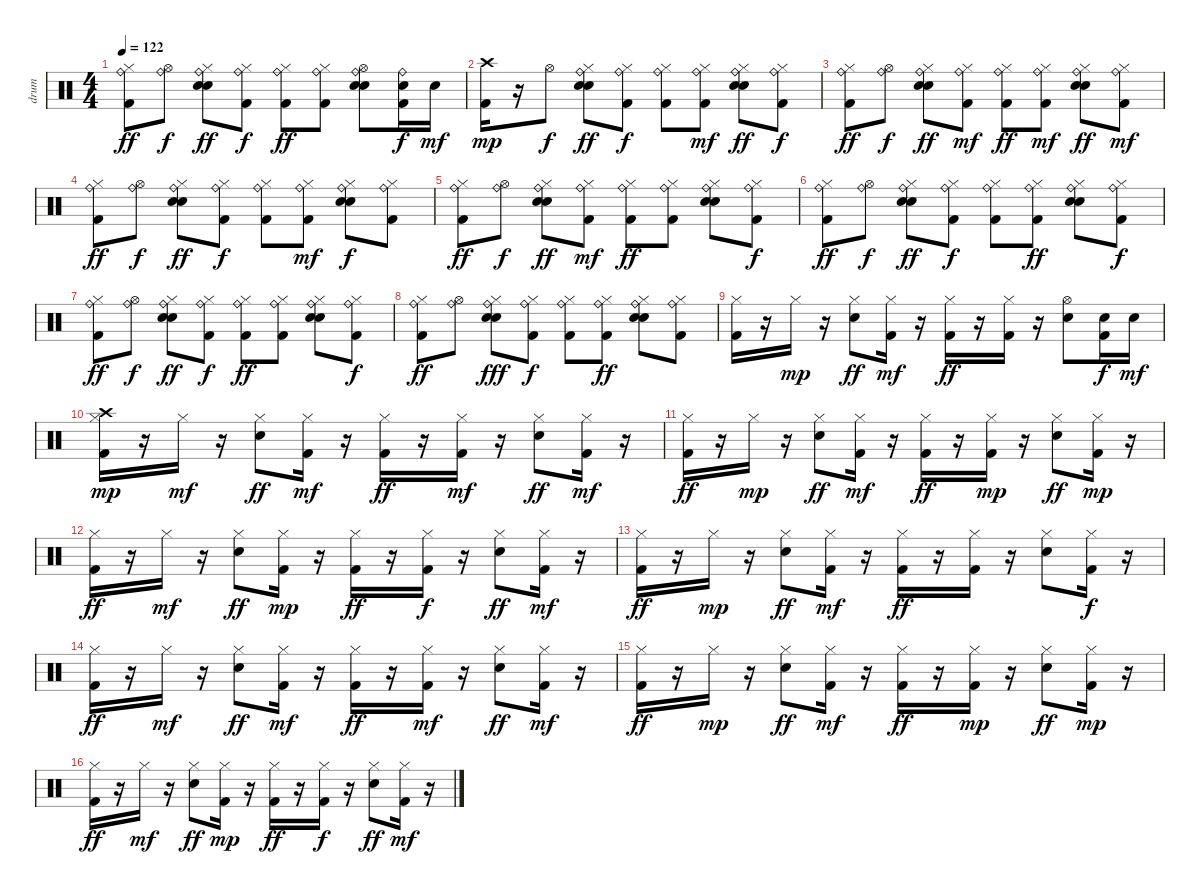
\track ("drum" "drum") {instrument percussion}
\staff {score}
\articulation defaults
\ts (4 4)
\tempo 122
\clef neutral
\ks c
("Kick (hit) 2" "Hi-Hat (closed)" "Ride (bell)").8{dy ff} ("Hi-Hat (open)" "Ride (bell)").8{dy f} ("Electric Snare (hit)" "Hi-Hat (closed)" "Hand Clap (hit)" "Ride (bell)").8{dy ff} ("Kick (hit) 2" "Hi-Hat (closed)" "Ride (bell)").8{dy f} ("Kick (hit) 2" "Hi-Hat (closed)" "Ride (bell)").8{dy ff} ("Kick (hit) 2" "Hi-Hat (closed)" "Ride (bell)").8 ("Electric Snare (hit)" "Hi-Hat (open)" "Hand Clap (hit)" "Ride (bell)").8 ("Electric Snare (hit)" "Kick (hit) 2" "Ride (bell)").16{dy f} "Electric Snare (hit)".16{dy mf} |
("Kick (hit) 2" "Crash high (hit)").16{dy mp} r.16 "Hi-Hat (open)".8{dy f} ("Electric Snare (hit)" "Hi-Hat (closed)" "Hand Clap (hit)" "Ride (bell)").8{dy ff} ("Kick (hit) 2" "Hi-Hat (closed)" "Ride (bell)").8{dy f} ("Kick (hit) 2" "Hi-Hat (closed)" "Ride (bell)").8 ("Kick (hit) 2" "Hi-Hat (closed)" "Ride (bell)").8{dy mf} ("Electric Snare (hit)" "Hi-Hat (closed)" "Hand Clap (hit)" "Ride (bell)").8{dy ff} ("Kick (hit) 2" "Hi-Hat (closed)" "Ride (bell)").8{dy f} |
("Kick (hit) 2" "Hi-Hat (closed)" "Ride (bell)").8{dy ff} ("Hi-Hat (open)" "Ride (bell)").8{dy f} ("Electric Snare (hit)" "Hi-Hat (closed)" "Hand Clap (hit)" "Ride (bell)").8{dy ff} ("Kick (hit) 2" "Hi-Hat (closed)" "Ride (bell)").8{dy mf} ("Kick (hit) 2" "Hi-Hat (closed)" "Ride (bell)").8{dy ff} ("Kick (hit) 2" "Hi-Hat (closed)" "Ride (bell)").8{dy mf} ("Electric Snare (hit)" "Hi-Hat (closed)" "Hand Clap (hit)" "Ride (bell)").8{dy ff} ("Kick (hit) 2" "Hi-Hat (closed)" "Ride (bell)").8{dy mf} |
("Kick (hit) 2" "Hi-Hat (closed)" "Ride (bell)").8{dy ff} ("Hi-Hat (open)" "Ride (bell)").8{dy f} ("Electric Snare (hit)" "Hi-Hat (closed)" "Hand Clap (hit)" "Ride (bell)").8{dy ff} ("Kick (hit) 2" "Hi-Hat (closed)" "Ride (bell)").8{dy f} ("Kick (hit) 2" "Hi-Hat (closed)" "Ride (bell)").8 ("Kick (hit) 2" "Hi-Hat (closed)" "Ride (bell)").8{dy mf} ("Electric Snare (hit)" "Hi-Hat (closed)" "Hand Clap (hit)" "Ride (bell)").8{dy f} ("Kick (hit) 2" "Hi-Hat (closed)" "Ride (bell)").8 |
("Kick (hit) 2" "Hi-Hat (closed)" "Ride (bell)").8{dy ff} ("Hi-Hat (open)" "Ride (bell)").8{dy f} ("Electric Snare (hit)" "Hi-Hat (closed)" "Hand Clap (hit)" "Ride (bell)").8{dy ff} ("Kick (hit) 2" "Hi-Hat (closed)" "Ride (bell)").8{dy mf} ("Kick (hit) 2" "Hi-Hat (closed)" "Ride (bell)").8{dy ff} ("Kick (hit) 2" "Hi-Hat (closed)" "Ride (bell)").8 ("Electric Snare (hit)" "Hi-Hat (closed)" "Hand Clap (hit)" "Ride (bell)").8 ("Kick (hit) 2" "Hi-Hat (closed)" "Ride (bell)").8{dy f} |
("Kick (hit) 2" "Hi-Hat (closed)" "Ride (bell)").8{dy ff} ("Hi-Hat (open)" "Ride (bell)").8{dy f} ("Electric Snare (hit)" "Hi-Hat (closed)" "Hand Clap (hit)" "Ride (bell)").8{dy ff} ("Kick (hit) 2" "Hi-Hat (closed)" "Ride (bell)").8{dy f} ("Kick (hit) 2" "Hi-Hat (closed)" "Ride (bell)").8 ("Kick (hit) 2" "Hi-Hat (closed)" "Ride (bell)").8{dy ff} ("Electric Snare (hit)" "Hi-Hat (closed)" "Hand Clap (hit)" "Ride (bell)").8 ("Kick (hit) 2" "Hi-Hat (closed)" "Ride (bell)").8{dy f} |
("Kick (hit) 2" "Hi-Hat (closed)" "Ride (bell)").8{dy ff} ("Hi-Hat (open)" "Ride (bell)").8{dy f} ("Electric Snare (hit)" "Hi-Hat (closed)" "Hand Clap (hit)" "Ride (bell)").8{dy ff} ("Kick (hit) 2" "Hi-Hat (closed)" "Ride (bell)").8{dy f} ("Kick (hit) 2" "Hi-Hat (closed)" "Ride (bell)").8{dy ff} ("Kick (hit) 2" "Hi-Hat (closed)" "Ride (bell)").8 ("Electric Snare (hit)" "Hi-Hat (closed)" "Hand Clap (hit)" "Ride (bell)").8 ("Kick (hit) 2" "Hi-Hat (closed)" "Ride (bell)").8{dy f} |
("Kick (hit) 2" "Hi-Hat (closed)" "Ride (bell)").8{dy ff} ("Hi-Hat (open)" "Ride (bell)").8 ("Electric Snare (hit)" "Hi-Hat (closed)" "Hand Clap (hit)" "Ride (bell)").8{dy fff} ("Kick (hit) 2" "Hi-Hat (closed)" "Ride (bell)").8{dy f} ("Kick (hit) 2" "Hi-Hat (closed)" "Ride (bell)").8 ("Kick (hit) 2" "Hi-Hat (closed)" "Ride (bell)").8{dy ff} ("Electric Snare (hit)" "Hi-Hat (closed)" "Hand Clap (hit)" "Ride (bell)").8 ("Kick (hit) 2" "Hi-Hat (closed)" "Ride (bell)").8 |
("Kick (hit) 2" "Hi-Hat (closed)").16 r.16 "Hi-Hat (closed)".16{dy mp} r.16 ("Electric Snare (hit)" "Hi-Hat (closed)").8{dy ff} ("Kick (hit) 2" "Hi-Hat (closed)").16{dy mf} r.16 ("Kick (hit) 2" "Hi-Hat (closed)").16{dy ff} r.16 ("Kick (hit) 2" "Hi-Hat (closed)").16 r.16 ("Electric Snare (hit)" "Hi-Hat (open)").8 ("Electric Snare (hit)" "Kick (hit) 2").16{dy f} "Electric Snare (hit)".16{dy mf} |
("Kick (hit) 2" "Hi-Hat (closed)" "Crash high (hit)").16{dy mp} r.16 "Hi-Hat (closed)".16{dy mf} r.16 ("Electric Snare (hit)" "Hi-Hat (closed)").8{dy ff} ("Kick (hit) 2" "Hi-Hat (closed)").16{dy mf} r.16 ("Kick (hit) 2" "Hi-Hat (closed)").16{dy ff} r.16 ("Kick (hit) 2" "Hi-Hat (closed)").16{dy mf} r.16 ("Electric Snare (hit)" "Hi-Hat (closed)").8{dy ff} ("Kick (hit) 2" "Hi-Hat (closed)").16{dy mf} r.16 |
("Kick (hit) 2" "Hi-Hat (closed)").16{dy ff} r.16 "Hi-Hat (closed)".16{dy mp} r.16 ("Electric Snare (hit)" "Hi-Hat (closed)").8{dy ff} ("Kick (hit) 2" "Hi-Hat (closed)").16{dy mf} r.16 ("Kick (hit) 2" "Hi-Hat (closed)").16{dy ff} r.16 ("Kick (hit) 2" "Hi-Hat (closed)").16{dy mp} r.16 ("Electric Snare (hit)" "Hi-Hat (closed)").8{dy ff} ("Kick (hit) 2" "Hi-Hat (closed)").16{dy mp} r.16 |
("Kick (hit) 2" "Hi-Hat (closed)").16{dy ff} r.16 "Hi-Hat (closed)".16{dy mf} r.16 ("Electric Snare (hit)" "Hi-Hat (closed)").8{dy ff} ("Kick (hit) 2" "Hi-Hat (closed)").16{dy mp} r.16 ("Kick (hit) 2" "Hi-Hat (closed)").16{dy ff} r.16 ("Kick (hit) 2" "Hi-Hat (closed)").16{dy f} r.16 ("Electric Snare (hit)" "Hi-Hat (closed)").8{dy ff} ("Kick (hit) 2" "Hi-Hat (closed)").16{dy mf} r.16 |
("Kick (hit) 2" "Hi-Hat (closed)").16{dy ff} r.16 "Hi-Hat (closed)".16{dy mp} r.16 ("Electric Snare (hit)" "Hi-Hat (closed)").8{dy ff} ("Kick (hit) 2" "Hi-Hat (closed)").16{dy mf} r.16 ("Kick (hit) 2" "Hi-Hat (closed)").16{dy ff} r.16 ("Kick (hit) 2" "Hi-Hat (closed)").16 r.16 ("Electric Snare (hit)" "Hi-Hat (closed)").8 ("Kick (hit) 2" "Hi-Hat (closed)").16{dy f} r.16 |
("Kick (hit) 2" "Hi-Hat (closed)").16{dy ff} r.16 "Hi-Hat (closed)".16{dy mf} r.16 ("Electric Snare (hit)" "Hi-Hat (closed)").8{dy ff} ("Kick (hit) 2" "Hi-Hat (closed)").16{dy mf} r.16 ("Kick (hit) 2" "Hi-Hat (closed)").16{dy ff} r.16 ("Kick (hit) 2" "Hi-Hat (closed)").16{dy mf} r.16 ("Electric Snare (hit)" "Hi-Hat (closed)").8{dy ff} ("Kick (hit) 2" "Hi-Hat (closed)").16{dy mf} r.16 |
("Kick (hit) 2" "Hi-Hat (closed)").16{dy ff} r.16 "Hi-Hat (closed)".16{dy mp} r.16 ("Electric Snare (hit)" "Hi-Hat (closed)").8{dy ff} ("Kick (hit) 2" "Hi-Hat (closed)").16{dy mf} r.16 ("Kick (hit) 2" "Hi-Hat (closed)").16{dy ff} r.16 ("Kick (hit) 2" "Hi-Hat (closed)").16{dy mp} r.16 ("Electric Snare (hit)" "Hi-Hat (closed)").8{dy ff} ("Kick (hit) 2" "Hi-Hat (closed)").16{dy mp} r.16 |
("Kick (hit) 2" "Hi-Hat (closed)").16{dy ff} r.16 "Hi-Hat (closed)".16{dy mf} r.16 ("Electric Snare (hit)" "Hi-Hat (closed)").8{dy ff} ("Kick (hit) 2" "Hi-Hat (closed)").16{dy mp} r.16 ("Kick (hit) 2" "Hi-Hat (closed)").16{dy ff} r.16 ("Kick (hit) 2" "Hi-Hat (closed)").16{dy f} r.16 ("Electric Snare (hit)" "Hi-Hat (closed)").8{dy ff} ("Kick (hit) 2" "Hi-Hat (closed)").16{dy mf} r.16
